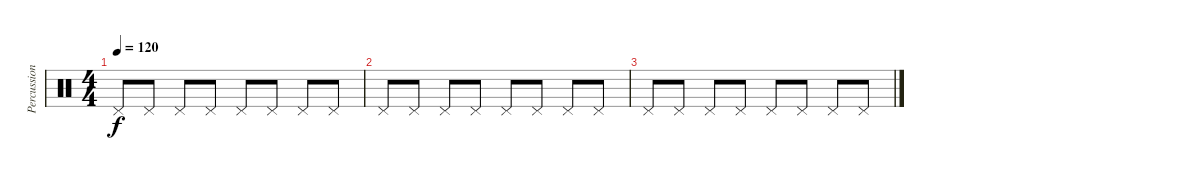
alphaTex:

\track ("Percussions" "Percussion") {instrument percussion}
\staff {score}
\articulation defaults
\ts (4 4)
\tempo 120
\clef neutral
\ks c "Pedal Hi-Hat (hit)".8{dy f} "Pedal Hi-Hat (hit)".8 "Pedal Hi-Hat (hit)".8 "Pedal Hi-Hat (hit)".8 "Pedal Hi-Hat (hit)".8 "Pedal Hi-Hat (hit)".8 "Pedal Hi-Hat (hit)".8 "Pedal Hi-Hat (hit)".8
|
"Pedal Hi-Hat (hit)".8 "Pedal Hi-Hat (hit)".8 "Pedal Hi-Hat (hit)".8 "Pedal Hi-Hat (hit)".8 "Pedal Hi-Hat (hit)".8 "Pedal Hi-Hat (hit)".8 "Pedal Hi-Hat (hit)".8 "Pedal Hi-Hat (hit)".8 |
"Pedal Hi-Hat (hit)".8 "Pedal Hi-Hat (hit)".8 "Pedal Hi-Hat (hit)".8 "Pedal Hi-Hat (hit)".8 "Pedal Hi-Hat (hit)".8 "Pedal Hi-Hat (hit)".8 "Pedal Hi-Hat (hit)".8 "Pedal Hi-Hat (hit)".8
